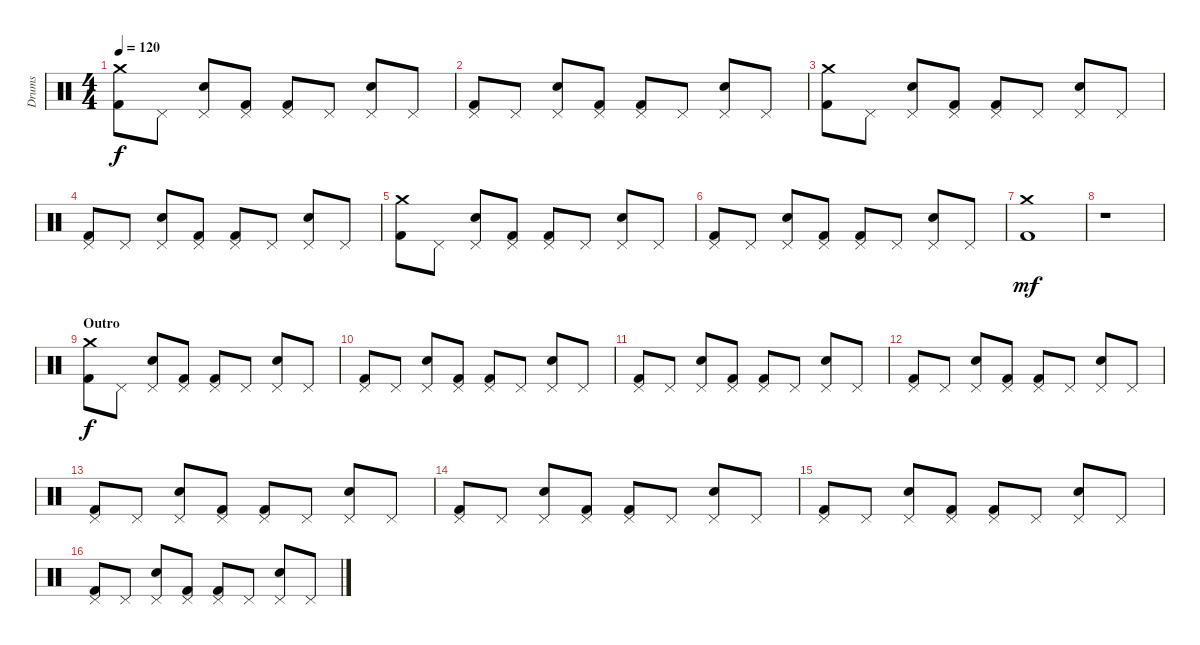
\track ("Drums" "Drums") {instrument percussion}
\staff {score}
\articulation defaults
\ts (4 4)
\tempo 120
\clef neutral
\ks c
("Crash medium (hit)" "Kick (hit) 2").8{dy f} "Pedal Hi-Hat (hit)".8 ("Pedal Hi-Hat (hit)" "Electric Snare (hit)").8 ("Pedal Hi-Hat (hit)" "Kick (hit) 2").8 ("Pedal Hi-Hat (hit)" "Kick (hit) 2").8 "Pedal Hi-Hat (hit)".8 ("Pedal Hi-Hat (hit)" "Electric Snare (hit)").8 "Pedal Hi-Hat (hit)".8 |
("Pedal Hi-Hat (hit)" "Kick (hit) 2").8 "Pedal Hi-Hat (hit)".8 ("Pedal Hi-Hat (hit)" "Electric Snare (hit)").8 ("Pedal Hi-Hat (hit)" "Kick (hit) 2").8 ("Pedal Hi-Hat (hit)" "Kick (hit) 2").8 "Pedal Hi-Hat (hit)".8 ("Pedal Hi-Hat (hit)" "Electric Snare (hit)").8 "Pedal Hi-Hat (hit)".8 |
("Crash medium (hit)" "Kick (hit) 2").8 "Pedal Hi-Hat (hit)".8 ("Pedal Hi-Hat (hit)" "Electric Snare (hit)").8 ("Pedal Hi-Hat (hit)" "Kick (hit) 2").8 ("Pedal Hi-Hat (hit)" "Kick (hit) 2").8 "Pedal Hi-Hat (hit)".8 ("Pedal Hi-Hat (hit)" "Electric Snare (hit)").8 "Pedal Hi-Hat (hit)".8 |
("Pedal Hi-Hat (hit)" "Kick (hit) 2").8 "Pedal Hi-Hat (hit)".8 ("Pedal Hi-Hat (hit)" "Electric Snare (hit)").8 ("Pedal Hi-Hat (hit)" "Kick (hit) 2").8 ("Pedal Hi-Hat (hit)" "Kick (hit) 2").8 "Pedal Hi-Hat (hit)".8 ("Pedal Hi-Hat (hit)" "Electric Snare (hit)").8 "Pedal Hi-Hat (hit)".8 |
("Crash medium (hit)" "Kick (hit) 2").8 "Pedal Hi-Hat (hit)".8 ("Pedal Hi-Hat (hit)" "Electric Snare (hit)").8 ("Pedal Hi-Hat (hit)" "Kick (hit) 2").8 ("Pedal Hi-Hat (hit)" "Kick (hit) 2").8 "Pedal Hi-Hat (hit)".8 ("Pedal Hi-Hat (hit)" "Electric Snare (hit)").8 "Pedal Hi-Hat (hit)".8 |
("Pedal Hi-Hat (hit)" "Kick (hit) 2").8 "Pedal Hi-Hat (hit)".8 ("Pedal Hi-Hat (hit)" "Electric Snare (hit)").8 ("Pedal Hi-Hat (hit)" "Kick (hit) 2").8 ("Pedal Hi-Hat (hit)" "Kick (hit) 2").8 "Pedal Hi-Hat (hit)".8 ("Pedal Hi-Hat (hit)" "Electric Snare (hit)").8 "Pedal Hi-Hat (hit)".8 |
("Crash medium (hit)" "Kick (hit) 2").1{dy mf} |
r.1 |
\section ("" "Outro")
("Crash medium (hit)" "Kick (hit) 2").8{dy f} "Pedal Hi-Hat (hit)".8 ("Pedal Hi-Hat (hit)" "Electric Snare (hit)").8 ("Pedal Hi-Hat (hit)" "Kick (hit) 2").8 ("Pedal Hi-Hat (hit)" "Kick (hit) 2").8 "Pedal Hi-Hat (hit)".8 ("Pedal Hi-Hat (hit)" "Electric Snare (hit)").8 "Pedal Hi-Hat (hit)".8 |
("Pedal Hi-Hat (hit)" "Kick (hit) 2").8 "Pedal Hi-Hat (hit)".8 ("Pedal Hi-Hat (hit)" "Electric Snare (hit)").8 ("Pedal Hi-Hat (hit)" "Kick (hit) 2").8 ("Pedal Hi-Hat (hit)" "Kick (hit) 2").8 "Pedal Hi-Hat (hit)".8 ("Pedal Hi-Hat (hit)" "Electric Snare (hit)").8 "Pedal Hi-Hat (hit)".8 |
("Pedal Hi-Hat (hit)" "Kick (hit) 2").8 "Pedal Hi-Hat (hit)".8 ("Pedal Hi-Hat (hit)" "Electric Snare (hit)").8 ("Pedal Hi-Hat (hit)" "Kick (hit) 2").8 ("Pedal Hi-Hat (hit)" "Kick (hit) 2").8 "Pedal Hi-Hat (hit)".8 ("Pedal Hi-Hat (hit)" "Electric Snare (hit)").8 "Pedal Hi-Hat (hit)".8 |
("Pedal Hi-Hat (hit)" "Kick (hit) 2").8 "Pedal Hi-Hat (hit)".8 ("Pedal Hi-Hat (hit)" "Electric Snare (hit)").8 ("Pedal Hi-Hat (hit)" "Kick (hit) 2").8 ("Pedal Hi-Hat (hit)" "Kick (hit) 2").8 "Pedal Hi-Hat (hit)".8 ("Pedal Hi-Hat (hit)" "Electric Snare (hit)").8 "Pedal Hi-Hat (hit)".8 |
("Pedal Hi-Hat (hit)" "Kick (hit) 2").8 "Pedal Hi-Hat (hit)".8 ("Pedal Hi-Hat (hit)" "Electric Snare (hit)").8 ("Pedal Hi-Hat (hit)" "Kick (hit) 2").8 ("Pedal Hi-Hat (hit)" "Kick (hit) 2").8 "Pedal Hi-Hat (hit)".8 ("Pedal Hi-Hat (hit)" "Electric Snare (hit)").8 "Pedal Hi-Hat (hit)".8 |
("Pedal Hi-Hat (hit)" "Kick (hit) 2").8 "Pedal Hi-Hat (hit)".8 ("Pedal Hi-Hat (hit)" "Electric Snare (hit)").8 ("Pedal Hi-Hat (hit)" "Kick (hit) 2").8 ("Pedal Hi-Hat (hit)" "Kick (hit) 2").8 "Pedal Hi-Hat (hit)".8 ("Pedal Hi-Hat (hit)" "Electric Snare (hit)").8 "Pedal Hi-Hat (hit)".8 |
("Pedal Hi-Hat (hit)" "Kick (hit) 2").8 "Pedal Hi-Hat (hit)".8 ("Pedal Hi-Hat (hit)" "Electric Snare (hit)").8 ("Pedal Hi-Hat (hit)" "Kick (hit) 2").8 ("Pedal Hi-Hat (hit)" "Kick (hit) 2").8 "Pedal Hi-Hat (hit)".8 ("Pedal Hi-Hat (hit)" "Electric Snare (hit)").8 "Pedal Hi-Hat (hit)".8 |
("Pedal Hi-Hat (hit)" "Kick (hit) 2").8 "Pedal Hi-Hat (hit)".8 ("Pedal Hi-Hat (hit)" "Electric Snare (hit)").8 ("Pedal Hi-Hat (hit)" "Kick (hit) 2").8 ("Pedal Hi-Hat (hit)" "Kick (hit) 2").8 "Pedal Hi-Hat (hit)".8 ("Pedal Hi-Hat (hit)" "Electric Snare (hit)").8 "Pedal Hi-Hat (hit)".8
